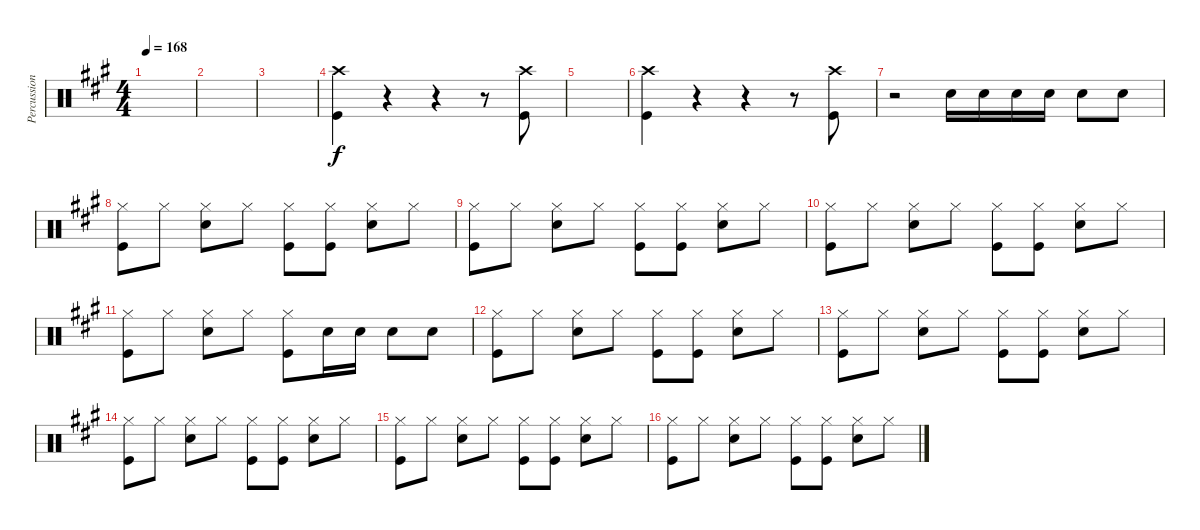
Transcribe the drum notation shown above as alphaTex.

\track ("Percussion" "Percussion") {instrument percussion}
\staff {score}
\articulation defaults
\ts (4 4)
\tempo 168
\clef neutral
\ks a
|
|
|
("Crash high (hit)" "Kick (hit)").4 r.4 r.4 r.8 ("Crash high (hit)" "Kick (hit)").8 |
|
("Crash high (hit)" "Kick (hit)").4 r.4 r.4 r.8 ("Crash high (hit)" "Kick (hit)").8 |
r.2 "Snare (hit) 2".16 "Snare (hit) 2".16 "Snare (hit) 2".16 "Snare (hit) 2".16 "Snare (hit) 2".8 "Snare (hit) 2".8 |
("Hi-Hat (closed)" "Kick (hit)").8 "Hi-Hat (closed)".8 ("Hi-Hat (closed)" "Snare (hit) 2").8 "Hi-Hat (closed)".8 ("Hi-Hat (closed)" "Kick (hit)").8 ("Hi-Hat (closed)" "Kick (hit)").8 ("Hi-Hat (closed)" "Snare (hit) 2").8 "Hi-Hat (closed)".8 |
("Hi-Hat (closed)" "Kick (hit)").8 "Hi-Hat (closed)".8 ("Hi-Hat (closed)" "Snare (hit) 2").8 "Hi-Hat (closed)".8 ("Hi-Hat (closed)" "Kick (hit)").8 ("Hi-Hat (closed)" "Kick (hit)").8 ("Hi-Hat (closed)" "Snare (hit) 2").8 "Hi-Hat (closed)".8 |
("Hi-Hat (closed)" "Kick (hit)").8 "Hi-Hat (closed)".8 ("Hi-Hat (closed)" "Snare (hit) 2").8 "Hi-Hat (closed)".8 ("Hi-Hat (closed)" "Kick (hit)").8 ("Hi-Hat (closed)" "Kick (hit)").8 ("Hi-Hat (closed)" "Snare (hit) 2").8 "Hi-Hat (closed)".8 |
("Hi-Hat (closed)" "Kick (hit)").8 "Hi-Hat (closed)".8 ("Hi-Hat (closed)" "Snare (hit) 2").8 "Hi-Hat (closed)".8 ("Hi-Hat (closed)" "Kick (hit)").8 "Snare (hit) 2".16 "Snare (hit) 2".16 "Snare (hit) 2".8 "Snare (hit) 2".8 |
("Hi-Hat (closed)" "Kick (hit)").8 "Hi-Hat (closed)".8 ("Hi-Hat (closed)" "Snare (hit) 2").8 "Hi-Hat (closed)".8 ("Hi-Hat (closed)" "Kick (hit)").8 ("Hi-Hat (closed)" "Kick (hit)").8 ("Hi-Hat (closed)" "Snare (hit) 2").8 "Hi-Hat (closed)".8 |
("Hi-Hat (closed)" "Kick (hit)").8 "Hi-Hat (closed)".8 ("Hi-Hat (closed)" "Snare (hit) 2").8 "Hi-Hat (closed)".8 ("Hi-Hat (closed)" "Kick (hit)").8 ("Hi-Hat (closed)" "Kick (hit)").8 ("Hi-Hat (closed)" "Snare (hit) 2").8 "Hi-Hat (closed)".8 |
("Hi-Hat (closed)" "Kick (hit)").8 "Hi-Hat (closed)".8 ("Hi-Hat (closed)" "Snare (hit) 2").8 "Hi-Hat (closed)".8 ("Hi-Hat (closed)" "Kick (hit)").8 ("Hi-Hat (closed)" "Kick (hit)").8 ("Hi-Hat (closed)" "Snare (hit) 2").8 "Hi-Hat (closed)".8 |
("Hi-Hat (closed)" "Kick (hit)").8 "Hi-Hat (closed)".8 ("Hi-Hat (closed)" "Snare (hit) 2").8 "Hi-Hat (closed)".8 ("Hi-Hat (closed)" "Kick (hit)").8 ("Hi-Hat (closed)" "Kick (hit)").8 ("Hi-Hat (closed)" "Snare (hit) 2").8 "Hi-Hat (closed)".8 |
("Hi-Hat (closed)" "Kick (hit)").8 "Hi-Hat (closed)".8 ("Hi-Hat (closed)" "Snare (hit) 2").8 "Hi-Hat (closed)".8 ("Hi-Hat (closed)" "Kick (hit)").8 ("Hi-Hat (closed)" "Kick (hit)").8 ("Hi-Hat (closed)" "Snare (hit) 2").8 "Hi-Hat (closed)".8
